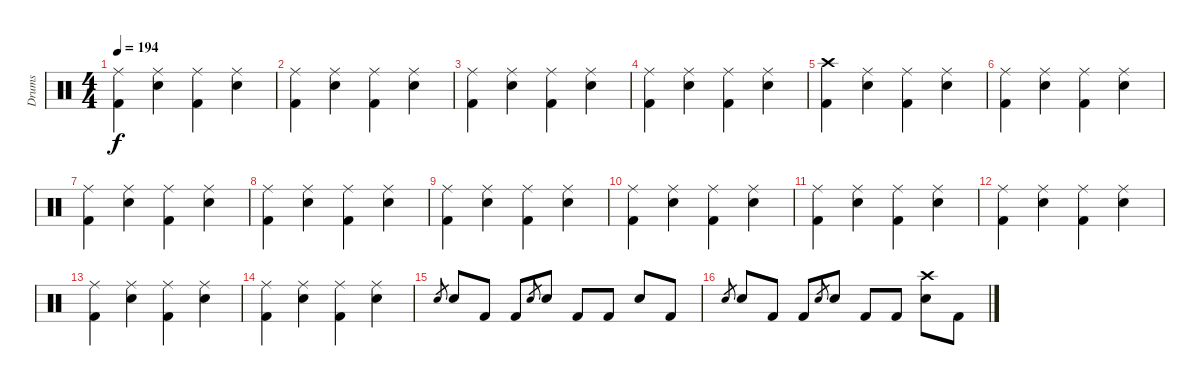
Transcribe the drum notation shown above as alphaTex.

\track ("Drums" "Drums") {instrument percussion}
\staff {score}
\articulation defaults
\ts (4 4)
\tempo 194
\clef neutral
\ks c
("Ride (middle)" "Kick (hit) 2").4{dy f} ("Ride (middle)" "Electric Snare (hit)").4 ("Ride (middle)" "Kick (hit) 2").4 ("Ride (middle)" "Electric Snare (hit)").4 |
("Ride (middle)" "Kick (hit) 2").4 ("Ride (middle)" "Electric Snare (hit)").4 ("Ride (middle)" "Kick (hit) 2").4 ("Ride (middle)" "Electric Snare (hit)").4 |
("Ride (middle)" "Kick (hit) 2").4 ("Ride (middle)" "Electric Snare (hit)").4 ("Ride (middle)" "Kick (hit) 2").4 ("Ride (middle)" "Electric Snare (hit)").4 |
("Ride (middle)" "Kick (hit) 2").4 ("Ride (middle)" "Electric Snare (hit)").4 ("Ride (middle)" "Kick (hit) 2").4 ("Ride (middle)" "Electric Snare (hit)").4 |
("Crash high (hit)" "Kick (hit) 2").4 ("Ride (middle)" "Electric Snare (hit)").4 ("Ride (middle)" "Kick (hit) 2").4 ("Ride (middle)" "Electric Snare (hit)").4 |
("Ride (middle)" "Kick (hit) 2").4 ("Ride (middle)" "Electric Snare (hit)").4 ("Ride (middle)" "Kick (hit) 2").4 ("Ride (middle)" "Electric Snare (hit)").4 |
("Ride (middle)" "Kick (hit) 2").4 ("Ride (middle)" "Electric Snare (hit)").4 ("Ride (middle)" "Kick (hit) 2").4 ("Ride (middle)" "Electric Snare (hit)").4 |
("Ride (middle)" "Kick (hit) 2").4 ("Ride (middle)" "Electric Snare (hit)").4 ("Ride (middle)" "Kick (hit) 2").4 ("Ride (middle)" "Electric Snare (hit)").4 |
("Ride (middle)" "Kick (hit) 2").4 ("Ride (middle)" "Electric Snare (hit)").4 ("Ride (middle)" "Kick (hit) 2").4 ("Ride (middle)" "Electric Snare (hit)").4 |
("Ride (middle)" "Kick (hit) 2").4 ("Ride (middle)" "Electric Snare (hit)").4 ("Ride (middle)" "Kick (hit) 2").4 ("Ride (middle)" "Electric Snare (hit)").4 |
("Ride (middle)" "Kick (hit) 2").4 ("Ride (middle)" "Electric Snare (hit)").4 ("Ride (middle)" "Kick (hit) 2").4 ("Ride (middle)" "Electric Snare (hit)").4 |
("Ride (middle)" "Kick (hit) 2").4 ("Ride (middle)" "Electric Snare (hit)").4 ("Ride (middle)" "Kick (hit) 2").4 ("Ride (middle)" "Electric Snare (hit)").4 |
("Ride (middle)" "Kick (hit) 2").4 ("Ride (middle)" "Electric Snare (hit)").4 ("Ride (middle)" "Kick (hit) 2").4 ("Ride (middle)" "Electric Snare (hit)").4 |
("Ride (middle)" "Kick (hit) 2").4 ("Ride (middle)" "Electric Snare (hit)").4 ("Ride (middle)" "Kick (hit) 2").4 ("Ride (middle)" "Electric Snare (hit)").4 |
"Electric Snare (hit)".8{gr} "Electric Snare (hit)".8 "Kick (hit) 2".8 "Kick (hit) 2".8 "Electric Snare (hit)".8{gr} "Electric Snare (hit)".8 "Kick (hit) 2".8 "Kick (hit) 2".8 "Electric Snare (hit)".8 "Kick (hit) 2".8 |
"Electric Snare (hit)".8{gr} "Electric Snare (hit)".8 "Kick (hit) 2".8 "Kick (hit) 2".8 "Electric Snare (hit)".8{gr} "Electric Snare (hit)".8 "Kick (hit) 2".8 "Kick (hit) 2".8 ("Crash high (hit)" "Electric Snare (hit)").8 "Kick (hit) 2".8
